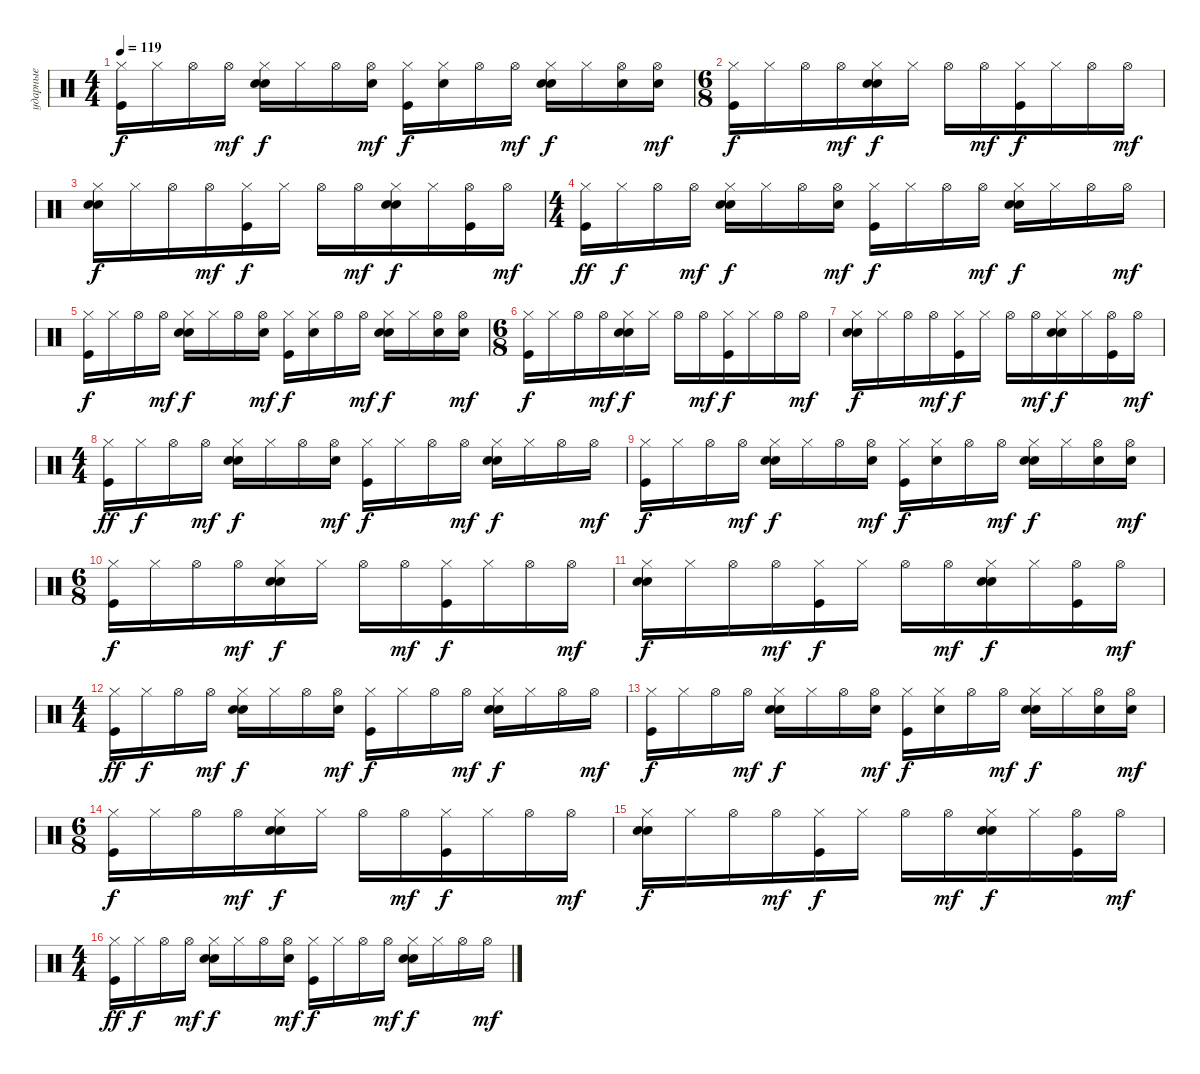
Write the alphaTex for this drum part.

\track ("ударные" "ударные") {instrument percussion}
\staff {score}
\articulation defaults
\ts (4 4)
\tempo 119
\clef neutral
\ks c
("Kick (hit)" "Hi-Hat (closed)").16{dy f} "Hi-Hat (closed)".16 "Hi-Hat (open)".16 "Hi-Hat (open)".16{dy mf} ("Electric Snare (hit)" "Hi-Hat (closed)" "Hand Clap (hit)").16{dy f} "Hi-Hat (closed)".16 "Hi-Hat (open)".16 ("Hi-Hat (open)" "Electric Snare (hit)").16{dy mf} ("Hi-Hat (closed)" "Kick (hit)").16{dy f} ("Electric Snare (hit)" "Hi-Hat (closed)").16 "Hi-Hat (open)".16 "Hi-Hat (open)".16{dy mf} ("Electric Snare (hit)" "Hi-Hat (closed)" "Hand Clap (hit)").16{dy f} "Hi-Hat (closed)".16 ("Electric Snare (hit)" "Hi-Hat (open)").16 ("Electric Snare (hit)" "Hi-Hat (open)").16{dy mf} |
\ts (6 8)
("Hi-Hat (closed)" "Kick (hit)").16{dy f} "Hi-Hat (closed)".16 "Hi-Hat (open)".16 "Hi-Hat (open)".16{dy mf} ("Electric Snare (hit)" "Hi-Hat (closed)" "Hand Clap (hit)").16{dy f} "Hi-Hat (closed)".16 "Hi-Hat (open)".16 "Hi-Hat (open)".16{dy mf} ("Kick (hit)" "Hi-Hat (closed)").16{dy f} "Hi-Hat (closed)".16 "Hi-Hat (open)".16 "Hi-Hat (open)".16{dy mf} |
("Electric Snare (hit)" "Hi-Hat (closed)" "Hand Clap (hit)").16{dy f} "Hi-Hat (closed)".16 "Hi-Hat (open)".16 "Hi-Hat (open)".16{dy mf} ("Kick (hit)" "Hi-Hat (closed)").16{dy f} "Hi-Hat (closed)".16 "Hi-Hat (open)".16 "Hi-Hat (open)".16{dy mf} ("Electric Snare (hit)" "Hi-Hat (closed)" "Hand Clap (hit)").16{dy f} "Hi-Hat (closed)".16 ("Kick (hit)" "Hi-Hat (open)").16 "Hi-Hat (open)".16{dy mf} |
\ts (4 4)
("Kick (hit)" "Hi-Hat (closed)").16{dy ff} "Hi-Hat (closed)".16{dy f} "Hi-Hat (open)".16 "Hi-Hat (open)".16{dy mf} ("Electric Snare (hit)" "Hi-Hat (closed)" "Hand Clap (hit)").16{dy f} "Hi-Hat (closed)".16 "Hi-Hat (open)".16 ("Hi-Hat (open)" "Electric Snare (hit)").16{dy mf} ("Hi-Hat (closed)" "Kick (hit)").16{dy f} "Hi-Hat (closed)".16 "Hi-Hat (open)".16 "Hi-Hat (open)".16{dy mf} ("Electric Snare (hit)" "Hi-Hat (closed)" "Hand Clap (hit)").16{dy f} "Hi-Hat (closed)".16 "Hi-Hat (open)".16 "Hi-Hat (open)".16{dy mf} |
("Kick (hit)" "Hi-Hat (closed)").16{dy f} "Hi-Hat (closed)".16 "Hi-Hat (open)".16 "Hi-Hat (open)".16{dy mf} ("Electric Snare (hit)" "Hi-Hat (closed)" "Hand Clap (hit)").16{dy f} "Hi-Hat (closed)".16 "Hi-Hat (open)".16 ("Hi-Hat (open)" "Electric Snare (hit)").16{dy mf} ("Hi-Hat (closed)" "Kick (hit)").16{dy f} ("Electric Snare (hit)" "Hi-Hat (closed)").16 "Hi-Hat (open)".16 "Hi-Hat (open)".16{dy mf} ("Electric Snare (hit)" "Hi-Hat (closed)" "Hand Clap (hit)").16{dy f} "Hi-Hat (closed)".16 ("Electric Snare (hit)" "Hi-Hat (open)").16 ("Electric Snare (hit)" "Hi-Hat (open)").16{dy mf} |
\ts (6 8)
("Hi-Hat (closed)" "Kick (hit)").16{dy f} "Hi-Hat (closed)".16 "Hi-Hat (open)".16 "Hi-Hat (open)".16{dy mf} ("Electric Snare (hit)" "Hi-Hat (closed)" "Hand Clap (hit)").16{dy f} "Hi-Hat (closed)".16 "Hi-Hat (open)".16 "Hi-Hat (open)".16{dy mf} ("Kick (hit)" "Hi-Hat (closed)").16{dy f} "Hi-Hat (closed)".16 "Hi-Hat (open)".16 "Hi-Hat (open)".16{dy mf} |
("Electric Snare (hit)" "Hi-Hat (closed)" "Hand Clap (hit)").16{dy f} "Hi-Hat (closed)".16 "Hi-Hat (open)".16 "Hi-Hat (open)".16{dy mf} ("Kick (hit)" "Hi-Hat (closed)").16{dy f} "Hi-Hat (closed)".16 "Hi-Hat (open)".16 "Hi-Hat (open)".16{dy mf} ("Electric Snare (hit)" "Hi-Hat (closed)" "Hand Clap (hit)").16{dy f} "Hi-Hat (closed)".16 ("Kick (hit)" "Hi-Hat (open)").16 "Hi-Hat (open)".16{dy mf} |
\ts (4 4)
("Kick (hit)" "Hi-Hat (closed)").16{dy ff} "Hi-Hat (closed)".16{dy f} "Hi-Hat (open)".16 "Hi-Hat (open)".16{dy mf} ("Electric Snare (hit)" "Hi-Hat (closed)" "Hand Clap (hit)").16{dy f} "Hi-Hat (closed)".16 "Hi-Hat (open)".16 ("Hi-Hat (open)" "Electric Snare (hit)").16{dy mf} ("Hi-Hat (closed)" "Kick (hit)").16{dy f} "Hi-Hat (closed)".16 "Hi-Hat (open)".16 "Hi-Hat (open)".16{dy mf} ("Electric Snare (hit)" "Hi-Hat (closed)" "Hand Clap (hit)").16{dy f} "Hi-Hat (closed)".16 "Hi-Hat (open)".16 "Hi-Hat (open)".16{dy mf} |
("Kick (hit)" "Hi-Hat (closed)").16{dy f} "Hi-Hat (closed)".16 "Hi-Hat (open)".16 "Hi-Hat (open)".16{dy mf} ("Electric Snare (hit)" "Hi-Hat (closed)" "Hand Clap (hit)").16{dy f} "Hi-Hat (closed)".16 "Hi-Hat (open)".16 ("Hi-Hat (open)" "Electric Snare (hit)").16{dy mf} ("Hi-Hat (closed)" "Kick (hit)").16{dy f} ("Electric Snare (hit)" "Hi-Hat (closed)").16 "Hi-Hat (open)".16 "Hi-Hat (open)".16{dy mf} ("Electric Snare (hit)" "Hi-Hat (closed)" "Hand Clap (hit)").16{dy f} "Hi-Hat (closed)".16 ("Electric Snare (hit)" "Hi-Hat (open)").16 ("Electric Snare (hit)" "Hi-Hat (open)").16{dy mf} |
\ts (6 8)
("Hi-Hat (closed)" "Kick (hit)").16{dy f} "Hi-Hat (closed)".16 "Hi-Hat (open)".16 "Hi-Hat (open)".16{dy mf} ("Electric Snare (hit)" "Hi-Hat (closed)" "Hand Clap (hit)").16{dy f} "Hi-Hat (closed)".16 "Hi-Hat (open)".16 "Hi-Hat (open)".16{dy mf} ("Kick (hit)" "Hi-Hat (closed)").16{dy f} "Hi-Hat (closed)".16 "Hi-Hat (open)".16 "Hi-Hat (open)".16{dy mf} |
("Electric Snare (hit)" "Hi-Hat (closed)" "Hand Clap (hit)").16{dy f} "Hi-Hat (closed)".16 "Hi-Hat (open)".16 "Hi-Hat (open)".16{dy mf} ("Kick (hit)" "Hi-Hat (closed)").16{dy f} "Hi-Hat (closed)".16 "Hi-Hat (open)".16 "Hi-Hat (open)".16{dy mf} ("Electric Snare (hit)" "Hi-Hat (closed)" "Hand Clap (hit)").16{dy f} "Hi-Hat (closed)".16 ("Kick (hit)" "Hi-Hat (open)").16 "Hi-Hat (open)".16{dy mf} |
\ts (4 4)
("Kick (hit)" "Hi-Hat (closed)").16{dy ff} "Hi-Hat (closed)".16{dy f} "Hi-Hat (open)".16 "Hi-Hat (open)".16{dy mf} ("Electric Snare (hit)" "Hi-Hat (closed)" "Hand Clap (hit)").16{dy f} "Hi-Hat (closed)".16 "Hi-Hat (open)".16 ("Hi-Hat (open)" "Electric Snare (hit)").16{dy mf} ("Hi-Hat (closed)" "Kick (hit)").16{dy f} "Hi-Hat (closed)".16 "Hi-Hat (open)".16 "Hi-Hat (open)".16{dy mf} ("Electric Snare (hit)" "Hi-Hat (closed)" "Hand Clap (hit)").16{dy f} "Hi-Hat (closed)".16 "Hi-Hat (open)".16 "Hi-Hat (open)".16{dy mf} |
("Kick (hit)" "Hi-Hat (closed)").16{dy f} "Hi-Hat (closed)".16 "Hi-Hat (open)".16 "Hi-Hat (open)".16{dy mf} ("Electric Snare (hit)" "Hi-Hat (closed)" "Hand Clap (hit)").16{dy f} "Hi-Hat (closed)".16 "Hi-Hat (open)".16 ("Hi-Hat (open)" "Electric Snare (hit)").16{dy mf} ("Hi-Hat (closed)" "Kick (hit)").16{dy f} ("Electric Snare (hit)" "Hi-Hat (closed)").16 "Hi-Hat (open)".16 "Hi-Hat (open)".16{dy mf} ("Electric Snare (hit)" "Hi-Hat (closed)" "Hand Clap (hit)").16{dy f} "Hi-Hat (closed)".16 ("Electric Snare (hit)" "Hi-Hat (open)").16 ("Electric Snare (hit)" "Hi-Hat (open)").16{dy mf} |
\ts (6 8)
("Hi-Hat (closed)" "Kick (hit)").16{dy f} "Hi-Hat (closed)".16 "Hi-Hat (open)".16 "Hi-Hat (open)".16{dy mf} ("Electric Snare (hit)" "Hi-Hat (closed)" "Hand Clap (hit)").16{dy f} "Hi-Hat (closed)".16 "Hi-Hat (open)".16 "Hi-Hat (open)".16{dy mf} ("Kick (hit)" "Hi-Hat (closed)").16{dy f} "Hi-Hat (closed)".16 "Hi-Hat (open)".16 "Hi-Hat (open)".16{dy mf} |
("Electric Snare (hit)" "Hi-Hat (closed)" "Hand Clap (hit)").16{dy f} "Hi-Hat (closed)".16 "Hi-Hat (open)".16 "Hi-Hat (open)".16{dy mf} ("Kick (hit)" "Hi-Hat (closed)").16{dy f} "Hi-Hat (closed)".16 "Hi-Hat (open)".16 "Hi-Hat (open)".16{dy mf} ("Electric Snare (hit)" "Hi-Hat (closed)" "Hand Clap (hit)").16{dy f} "Hi-Hat (closed)".16 ("Kick (hit)" "Hi-Hat (open)").16 "Hi-Hat (open)".16{dy mf} |
\ts (4 4)
("Kick (hit)" "Hi-Hat (closed)").16{dy ff} "Hi-Hat (closed)".16{dy f} "Hi-Hat (open)".16 "Hi-Hat (open)".16{dy mf} ("Electric Snare (hit)" "Hi-Hat (closed)" "Hand Clap (hit)").16{dy f} "Hi-Hat (closed)".16 "Hi-Hat (open)".16 ("Hi-Hat (open)" "Electric Snare (hit)").16{dy mf} ("Hi-Hat (closed)" "Kick (hit)").16{dy f} "Hi-Hat (closed)".16 "Hi-Hat (open)".16 "Hi-Hat (open)".16{dy mf} ("Electric Snare (hit)" "Hi-Hat (closed)" "Hand Clap (hit)").16{dy f} "Hi-Hat (closed)".16 "Hi-Hat (open)".16 "Hi-Hat (open)".16{dy mf}
